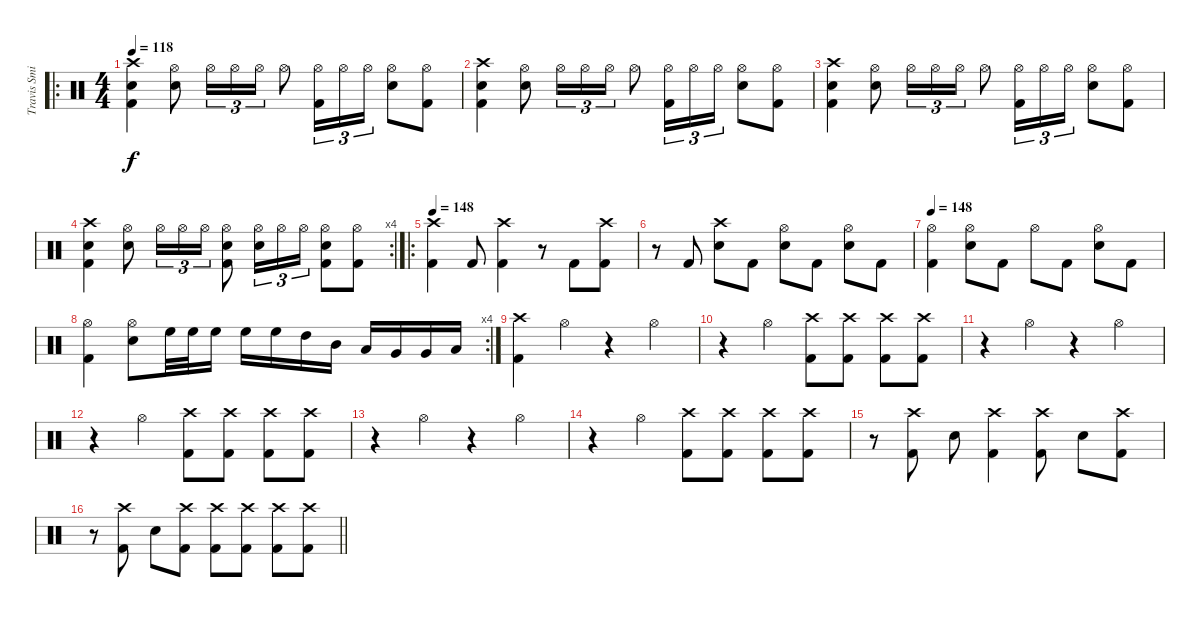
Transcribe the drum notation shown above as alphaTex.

\track ("Travis Smith" "Travis Smi") {instrument percussion}
\staff {score}
\articulation defaults
\ro
\ts (4 4)
\tempo 118
\clef neutral
\ks c
("Kick (hit) 2" "Snare (hit) 2" "Crash high (hit)").4{dy f} ("Snare (hit) 2" "Hi-Hat (open)").8 "Hi-Hat (open)".16{tu (3 2)} "Hi-Hat (open)".16{tu (3 2)} "Hi-Hat (open)".16{tu (3 2)} "Hi-Hat (open)".8 ("Kick (hit) 2" "Hi-Hat (open)").16{tu (3 2)} "Hi-Hat (open)".16{tu (3 2)} "Hi-Hat (open)".16{tu (3 2)} ("Snare (hit) 2" "Hi-Hat (open)").8 ("Kick (hit) 2" "Hi-Hat (open)").8 |
("Kick (hit) 2" "Snare (hit) 2" "Crash high (hit)").4 ("Snare (hit) 2" "Hi-Hat (open)").8 "Hi-Hat (open)".16{tu (3 2)} "Hi-Hat (open)".16{tu (3 2)} "Hi-Hat (open)".16{tu (3 2)} "Hi-Hat (open)".8 ("Kick (hit) 2" "Hi-Hat (open)").16{tu (3 2)} "Hi-Hat (open)".16{tu (3 2)} "Hi-Hat (open)".16{tu (3 2)} ("Snare (hit) 2" "Hi-Hat (open)").8 ("Kick (hit) 2" "Hi-Hat (open)").8 |
("Kick (hit) 2" "Snare (hit) 2" "Crash high (hit)").4 ("Snare (hit) 2" "Hi-Hat (open)").8 "Hi-Hat (open)".16{tu (3 2)} "Hi-Hat (open)".16{tu (3 2)} "Hi-Hat (open)".16{tu (3 2)} "Hi-Hat (open)".8 ("Kick (hit) 2" "Hi-Hat (open)").16{tu (3 2)} "Hi-Hat (open)".16{tu (3 2)} "Hi-Hat (open)".16{tu (3 2)} ("Snare (hit) 2" "Hi-Hat (open)").8 ("Kick (hit) 2" "Hi-Hat (open)").8 |
\rc 4
("Kick (hit) 2" "Snare (hit) 2" "Crash high (hit)").4 ("Snare (hit) 2" "Hi-Hat (open)").8 "Hi-Hat (open)".16{tu (3 2)} "Hi-Hat (open)".16{tu (3 2)} "Hi-Hat (open)".16{tu (3 2)} ("Kick (hit) 2" "Snare (hit) 2" "Hi-Hat (open)").8 ("Snare (hit) 2" "Hi-Hat (open)").16{tu (3 2)} "Hi-Hat (open)".16{tu (3 2)} "Hi-Hat (open)".16{tu (3 2)} ("Kick (hit) 2" "Snare (hit) 2" "Hi-Hat (open)").8 ("Kick (hit) 2" "Hi-Hat (open)").8 |
\ro
\tempo 148
("Kick (hit) 2" "Crash high (hit)").4 "Kick (hit) 2".8 ("Kick (hit) 2" "Crash high (hit)").4 r.8 "Kick (hit) 2".8 ("Kick (hit) 2" "Crash high (hit)").8 |
r.8 "Kick (hit) 2".8 ("Snare (hit) 2" "Crash high (hit)").8 "Kick (hit) 2".8 ("Snare (hit) 2" "Hi-Hat (open)").8 "Kick (hit) 2".8 ("Snare (hit) 2" "Hi-Hat (open)").8 "Kick (hit) 2".8 |
\tempo 148
("Kick (hit) 2" "Hi-Hat (open)").4 ("Snare (hit) 2" "Hi-Hat (open)").8 "Kick (hit) 2".8 "Hi-Hat (open)".8 "Kick (hit) 2".8 ("Snare (hit) 2" "Hi-Hat (open)").8 "Kick (hit) 2".8 |
\rc 4
("Kick (hit) 2" "Hi-Hat (open)").4 ("Snare (hit) 2" "Hi-Hat (open)").8 "High Floor Tom (hit)".32 "High Floor Tom (hit)".32 "High Floor Tom (hit)".16 "High Floor Tom (hit)".16 "High Floor Tom (hit)".16 "High Tom (hit)".16 "Mid Tom (hit)".16 "Low Tom (hit)".16 "Very Low Tom (hit)".16 "Very Low Tom (hit)".16 "Low Floor Tom (hit)".16 |
("Kick (hit) 2" "Crash high (hit)").4 "Hi-Hat (open)".4 r.4 "Hi-Hat (open)".4 |
r.4 "Hi-Hat (open)".4 ("Kick (hit) 2" "Crash high (hit)").8 ("Kick (hit) 2" "Crash high (hit)").8 ("Kick (hit) 2" "Crash high (hit)").8 ("Kick (hit) 2" "Crash high (hit)").8 |
r.4 "Hi-Hat (open)".4 r.4 "Hi-Hat (open)".4 |
r.4 "Hi-Hat (open)".4 ("Kick (hit) 2" "Crash high (hit)").8 ("Kick (hit) 2" "Crash high (hit)").8 ("Kick (hit) 2" "Crash high (hit)").8 ("Kick (hit) 2" "Crash high (hit)").8 |
r.4 "Hi-Hat (open)".4 r.4 "Hi-Hat (open)".4 |
r.4 "Hi-Hat (open)".4 ("Kick (hit) 2" "Crash high (hit)").8 ("Kick (hit) 2" "Crash high (hit)").8 ("Kick (hit) 2" "Crash high (hit)").8 ("Kick (hit) 2" "Crash high (hit)").8 |
r.8 ("Kick (hit) 2" "Crash high (hit)").8 "Snare (hit) 2".8 ("Kick (hit) 2" "Crash high (hit)").4 ("Kick (hit) 2" "Crash high (hit)").8 "Snare (hit) 2".8 ("Kick (hit) 2" "Crash high (hit)").8 |
\barLineRight lightlight
r.8 ("Kick (hit) 2" "Crash high (hit)").8 "Snare (hit) 2".8 ("Kick (hit) 2" "Crash high (hit)").8 ("Kick (hit) 2" "Crash high (hit)").8 ("Kick (hit) 2" "Crash high (hit)").8 ("Kick (hit) 2" "Crash high (hit)").8 ("Kick (hit) 2" "Crash high (hit)").8
